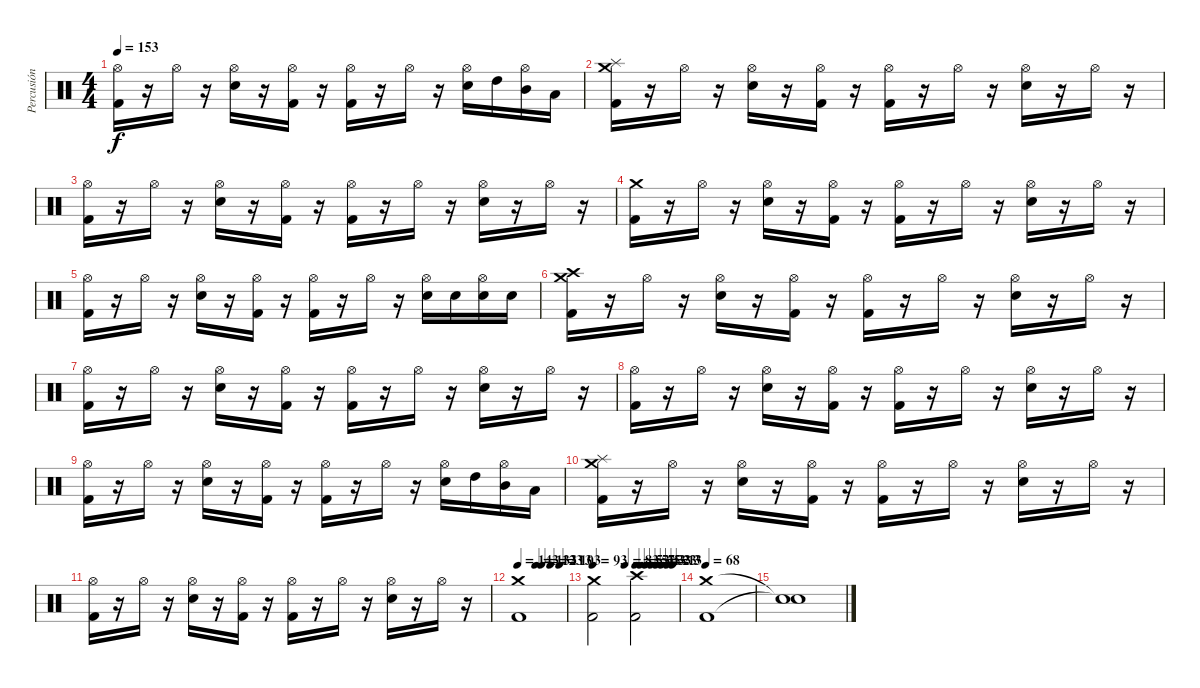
\track ("Percusión" "Percusión") {instrument percussion}
\staff {score}
\articulation defaults
\ts (4 4)
\tempo 153
\clef neutral
\ks c
("Kick (hit) 2" "Hi-Hat (open)").16{dy f} r.16 "Hi-Hat (open)".16 r.16 ("Electric Snare (hit)" "Hi-Hat (open)").16 r.16 ("Kick (hit) 2" "Hi-Hat (open)").16 r.16 ("Kick (hit) 2" "Hi-Hat (open)").16 r.16 "Hi-Hat (open)".16 r.16 ("Electric Snare (hit)" "Hi-Hat (open)").16 "High Tom (hit)".16 ("Mid Tom (hit)" "Hi-Hat (open)").16 "Low Tom (hit)".16 |
("Kick (hit) 2" "Crash medium (hit)" "Splash (hit)").16 r.16 "Hi-Hat (open)".16 r.16 ("Electric Snare (hit)" "Hi-Hat (open)").16 r.16 ("Kick (hit) 2" "Hi-Hat (open)").16 r.16 ("Kick (hit) 2" "Hi-Hat (open)").16 r.16 "Hi-Hat (open)".16 r.16 ("Electric Snare (hit)" "Hi-Hat (open)").16 r.16 "Hi-Hat (open)".16 r.16 |
("Kick (hit) 2" "Hi-Hat (open)").16 r.16 "Hi-Hat (open)".16 r.16 ("Electric Snare (hit)" "Hi-Hat (open)").16 r.16 ("Kick (hit) 2" "Hi-Hat (open)").16 r.16 ("Kick (hit) 2" "Hi-Hat (open)").16 r.16 "Hi-Hat (open)".16 r.16 ("Electric Snare (hit)" "Hi-Hat (open)").16 r.16 "Hi-Hat (open)".16 r.16 |
("Kick (hit) 2" "Crash medium (hit)").16 r.16 "Hi-Hat (open)".16 r.16 ("Electric Snare (hit)" "Hi-Hat (open)").16 r.16 ("Kick (hit) 2" "Hi-Hat (open)").16 r.16 ("Kick (hit) 2" "Hi-Hat (open)").16 r.16 "Hi-Hat (open)".16 r.16 ("Electric Snare (hit)" "Hi-Hat (open)").16 r.16 "Hi-Hat (open)".16 r.16 |
("Kick (hit) 2" "Hi-Hat (open)").16 r.16 "Hi-Hat (open)".16 r.16 ("Electric Snare (hit)" "Hi-Hat (open)").16 r.16 ("Kick (hit) 2" "Hi-Hat (open)").16 r.16 ("Kick (hit) 2" "Hi-Hat (open)").16 r.16 "Hi-Hat (open)".16 r.16 ("Electric Snare (hit)" "Hi-Hat (open)").16 "Electric Snare (hit)".16 ("Electric Snare (hit)" "Hi-Hat (open)").16 "Electric Snare (hit)".16 |
("Kick (hit) 2" "Crash medium (hit)" "Crash high (hit)").16 r.16 "Hi-Hat (open)".16 r.16 ("Electric Snare (hit)" "Hi-Hat (open)").16 r.16 ("Kick (hit) 2" "Hi-Hat (open)").16 r.16 ("Kick (hit) 2" "Hi-Hat (open)").16 r.16 "Hi-Hat (open)".16 r.16 ("Electric Snare (hit)" "Hi-Hat (open)").16 r.16 "Hi-Hat (open)".16 r.16 |
("Kick (hit) 2" "Hi-Hat (open)").16 r.16 "Hi-Hat (open)".16 r.16 ("Electric Snare (hit)" "Hi-Hat (open)").16 r.16 ("Kick (hit) 2" "Hi-Hat (open)").16 r.16 ("Kick (hit) 2" "Hi-Hat (open)").16 r.16 "Hi-Hat (open)".16 r.16 ("Electric Snare (hit)" "Hi-Hat (open)").16 r.16 "Hi-Hat (open)".16 r.16 |
("Kick (hit) 2" "Hi-Hat (open)").16 r.16 "Hi-Hat (open)".16 r.16 ("Electric Snare (hit)" "Hi-Hat (open)").16 r.16 ("Kick (hit) 2" "Hi-Hat (open)").16 r.16 ("Kick (hit) 2" "Hi-Hat (open)").16 r.16 "Hi-Hat (open)".16 r.16 ("Electric Snare (hit)" "Hi-Hat (open)").16 r.16 "Hi-Hat (open)".16 r.16 |
("Kick (hit) 2" "Hi-Hat (open)").16 r.16 "Hi-Hat (open)".16 r.16 ("Electric Snare (hit)" "Hi-Hat (open)").16 r.16 ("Kick (hit) 2" "Hi-Hat (open)").16 r.16 ("Kick (hit) 2" "Hi-Hat (open)").16 r.16 "Hi-Hat (open)".16 r.16 ("Electric Snare (hit)" "Hi-Hat (open)").16 "High Tom (hit)".16 ("Mid Tom (hit)" "Hi-Hat (open)").16 "Low Tom (hit)".16 |
("Kick (hit) 2" "Crash medium (hit)" "Splash (hit)").16 r.16 "Hi-Hat (open)".16 r.16 ("Electric Snare (hit)" "Hi-Hat (open)").16 r.16 ("Kick (hit) 2" "Hi-Hat (open)").16 r.16 ("Kick (hit) 2" "Hi-Hat (open)").16 r.16 "Hi-Hat (open)".16 r.16 ("Electric Snare (hit)" "Hi-Hat (open)").16 r.16 "Hi-Hat (open)".16 r.16 |
("Kick (hit) 2" "Hi-Hat (open)").16 r.16 "Hi-Hat (open)".16 r.16 ("Electric Snare (hit)" "Hi-Hat (open)").16 r.16 ("Kick (hit) 2" "Hi-Hat (open)").16 r.16 ("Kick (hit) 2" "Hi-Hat (open)").16 r.16 "Hi-Hat (open)".16 r.16 ("Electric Snare (hit)" "Hi-Hat (open)").16 r.16 "Hi-Hat (open)".16 r.16 |
\tempo 143
\tempo (133 0.375)
\tempo (123 0.5)
\tempo (113 0.6875)
\tempo (103 0.875)
("Kick (hit) 2" "Crash medium (hit)").1 |
\tempo 93
\tempo (83 0.375)
\tempo (53 0.5)
\tempo (57 0.5625)
\tempo (45 0.625)
\tempo (43 0.6875)
\tempo (33 0.75)
\tempo (23 0.8125)
\tempo (13 0.875)
\tempo (3 0.9375)
("Kick (hit) 2" "Crash medium (hit)").2 ("Kick (hit) 2" "Crash high (hit)").2 |
\tempo 68
("Kick (hit) 2" "Crash medium (hit)").1 |
("Snare (hit)"{t} "Snare (hit)"{t}).1
